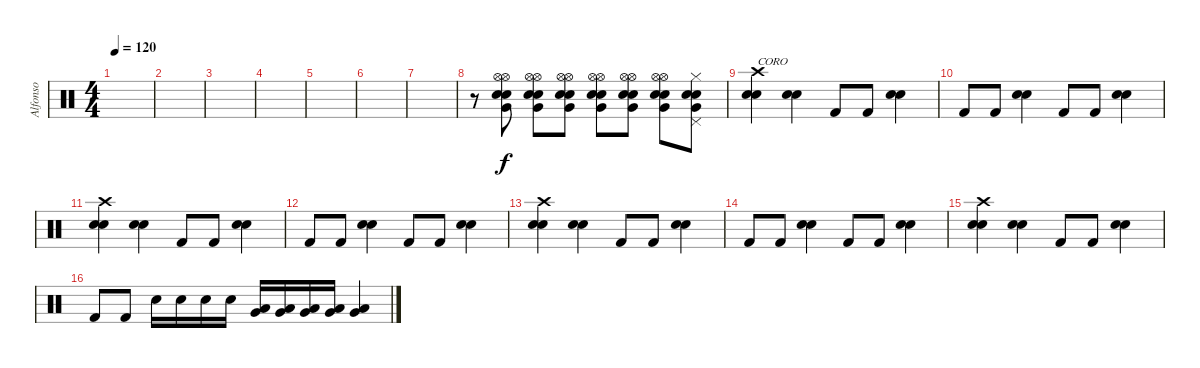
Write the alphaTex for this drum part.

\track ("Alfonso" "Alfonso") {instrument percussion}
\staff {score}
\articulation defaults
\ts (4 4)
\tempo 120
\clef neutral
\ks c
|
|
|
|
|
|
|
r.8 ("Hi-Hat (open)" "Electric Snare (hit)" "Snare (hit) 2" "Very Low Tom (hit)" "Hi-Hat (open)").8 ("Hi-Hat (open)" "Electric Snare (hit)" "Snare (hit) 2" "Very Low Tom (hit)" "Hi-Hat (open)").8 ("Hi-Hat (open)" "Electric Snare (hit)" "Snare (hit) 2" "Very Low Tom (hit)" "Hi-Hat (open)").8 ("Hi-Hat (open)" "Electric Snare (hit)" "Snare (hit) 2" "Very Low Tom (hit)" "Hi-Hat (open)").8 ("Hi-Hat (open)" "Electric Snare (hit)" "Snare (hit) 2" "Very Low Tom (hit)" "Hi-Hat (open)").8 ("Hi-Hat (open)" "Electric Snare (hit)" "Snare (hit) 2" "Very Low Tom (hit)" "Hi-Hat (open)").8 ("Pedal Hi-Hat (hit)" "Electric Snare (hit)" "Snare (hit) 2" "Very Low Tom (hit)" "Hi-Hat (closed)").8 |
("Snare (hit) 2" "Crash high (hit)" "Electric Snare (hit)").4{txt "CORO"} ("Electric Snare (hit)" "Electric Snare (hit)").4 "Kick (hit) 2".8 "Kick (hit) 2".8 ("Electric Snare (hit)" "Electric Snare (hit)").4 |
"Kick (hit) 2".8 "Kick (hit) 2".8 ("Electric Snare (hit)" "Electric Snare (hit)").4 "Kick (hit) 2".8 "Kick (hit) 2".8 ("Electric Snare (hit)" "Electric Snare (hit)").4 |
("Snare (hit) 2" "Crash high (hit)" "Electric Snare (hit)").4 ("Electric Snare (hit)" "Electric Snare (hit)").4 "Kick (hit) 2".8 "Kick (hit) 2".8 ("Electric Snare (hit)" "Electric Snare (hit)").4 |
"Kick (hit) 2".8 "Kick (hit) 2".8 ("Electric Snare (hit)" "Electric Snare (hit)").4 "Kick (hit) 2".8 "Kick (hit) 2".8 ("Electric Snare (hit)" "Electric Snare (hit)").4 |
("Snare (hit) 2" "Crash high (hit)" "Electric Snare (hit)").4 ("Electric Snare (hit)" "Electric Snare (hit)").4 "Kick (hit) 2".8 "Kick (hit) 2".8 ("Electric Snare (hit)" "Electric Snare (hit)").4 |
"Kick (hit) 2".8 "Kick (hit) 2".8 ("Electric Snare (hit)" "Electric Snare (hit)").4 "Kick (hit) 2".8 "Kick (hit) 2".8 ("Electric Snare (hit)" "Electric Snare (hit)").4 |
("Snare (hit) 2" "Crash high (hit)" "Electric Snare (hit)").4 ("Electric Snare (hit)" "Electric Snare (hit)").4 "Kick (hit) 2".8 "Kick (hit) 2".8 ("Electric Snare (hit)" "Electric Snare (hit)").4 |
"Kick (hit) 2".8 "Kick (hit) 2".8 "Electric Snare (hit)".16 "Electric Snare (hit)".16 "Electric Snare (hit)".16 "Electric Snare (hit)".16 ("Very Low Tom (hit)" "Low Floor Tom (hit)").16 ("Very Low Tom (hit)" "Low Floor Tom (hit)").16 ("Very Low Tom (hit)" "Low Floor Tom (hit)").16 ("Very Low Tom (hit)" "Low Floor Tom (hit)").16 ("Very Low Tom (hit)" "Low Floor Tom (hit)").4
